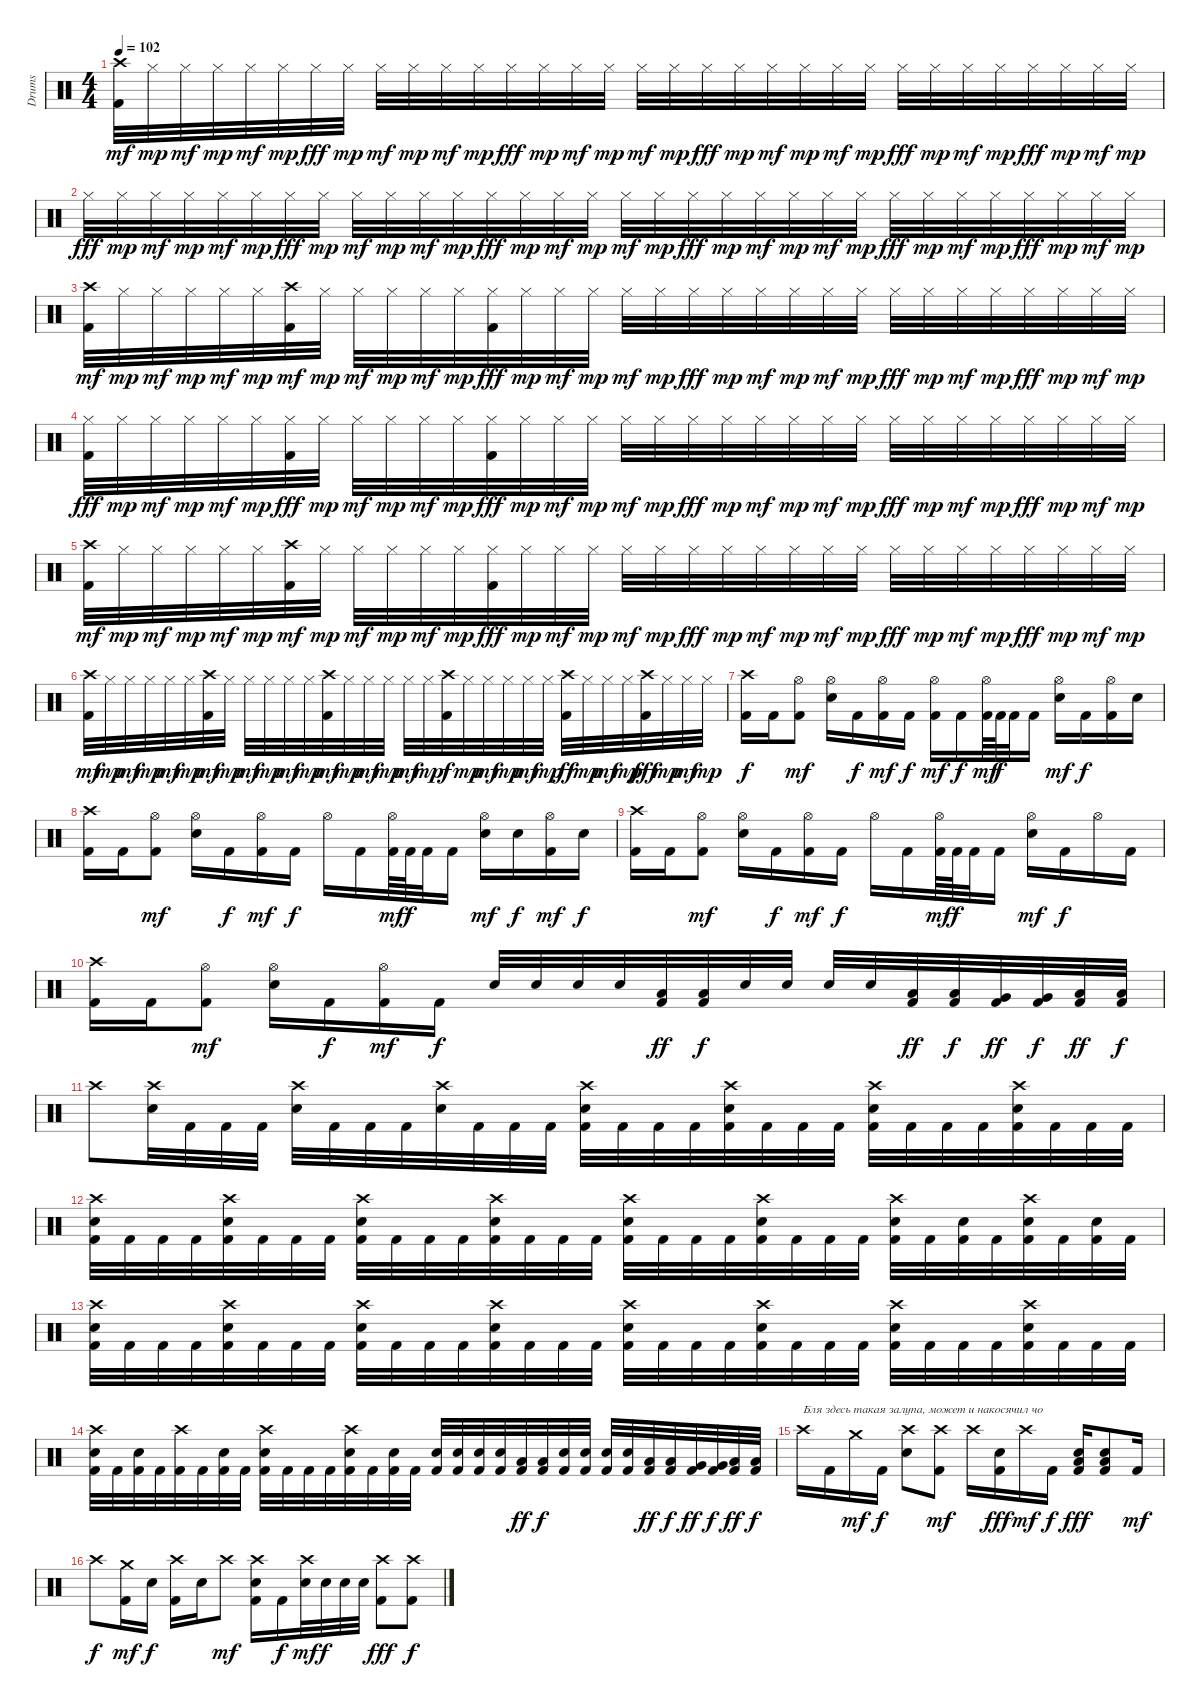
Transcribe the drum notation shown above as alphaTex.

\track ("Drums" "Drums") {instrument percussion}
\staff {score}
\articulation defaults
\ts (4 4)
\tempo 102
\clef neutral
\ks c
("Crash high (hit)" "Kick (hit) 2").32{dy mf} "Hi-Hat (closed)".32{dy mp} "Hi-Hat (closed)".32{dy mf} "Hi-Hat (closed)".32{dy mp} "Hi-Hat (closed)".32{dy mf} "Hi-Hat (closed)".32{dy mp} "Hi-Hat (closed)".32{dy fff} "Hi-Hat (closed)".32{dy mp} "Hi-Hat (closed)".32{dy mf} "Hi-Hat (closed)".32{dy mp} "Hi-Hat (closed)".32{dy mf} "Hi-Hat (closed)".32{dy mp} "Hi-Hat (closed)".32{dy fff} "Hi-Hat (closed)".32{dy mp} "Hi-Hat (closed)".32{dy mf} "Hi-Hat (closed)".32{dy mp} "Hi-Hat (closed)".32{dy mf} "Hi-Hat (closed)".32{dy mp} "Hi-Hat (closed)".32{dy fff} "Hi-Hat (closed)".32{dy mp} "Hi-Hat (closed)".32{dy mf} "Hi-Hat (closed)".32{dy mp} "Hi-Hat (closed)".32{dy mf} "Hi-Hat (closed)".32{dy mp} "Hi-Hat (closed)".32{dy fff} "Hi-Hat (closed)".32{dy mp} "Hi-Hat (closed)".32{dy mf} "Hi-Hat (closed)".32{dy mp} "Hi-Hat (closed)".32{dy fff} "Hi-Hat (closed)".32{dy mp} "Hi-Hat (closed)".32{dy mf} "Hi-Hat (closed)".32{dy mp} |
"Hi-Hat (closed)".32{dy fff} "Hi-Hat (closed)".32{dy mp} "Hi-Hat (closed)".32{dy mf} "Hi-Hat (closed)".32{dy mp} "Hi-Hat (closed)".32{dy mf} "Hi-Hat (closed)".32{dy mp} "Hi-Hat (closed)".32{dy fff} "Hi-Hat (closed)".32{dy mp} "Hi-Hat (closed)".32{dy mf} "Hi-Hat (closed)".32{dy mp} "Hi-Hat (closed)".32{dy mf} "Hi-Hat (closed)".32{dy mp} "Hi-Hat (closed)".32{dy fff} "Hi-Hat (closed)".32{dy mp} "Hi-Hat (closed)".32{dy mf} "Hi-Hat (closed)".32{dy mp} "Hi-Hat (closed)".32{dy mf} "Hi-Hat (closed)".32{dy mp} "Hi-Hat (closed)".32{dy fff} "Hi-Hat (closed)".32{dy mp} "Hi-Hat (closed)".32{dy mf} "Hi-Hat (closed)".32{dy mp} "Hi-Hat (closed)".32{dy mf} "Hi-Hat (closed)".32{dy mp} "Hi-Hat (closed)".32{dy fff} "Hi-Hat (closed)".32{dy mp} "Hi-Hat (closed)".32{dy mf} "Hi-Hat (closed)".32{dy mp} "Hi-Hat (closed)".32{dy fff} "Hi-Hat (closed)".32{dy mp} "Hi-Hat (closed)".32{dy mf} "Hi-Hat (closed)".32{dy mp} |
("Crash high (hit)" "Kick (hit) 2").32{dy mf} "Hi-Hat (closed)".32{dy mp} "Hi-Hat (closed)".32{dy mf} "Hi-Hat (closed)".32{dy mp} "Hi-Hat (closed)".32{dy mf} "Hi-Hat (closed)".32{dy mp} ("Crash high (hit)" "Kick (hit) 2").32{dy mf} "Hi-Hat (closed)".32{dy mp} "Hi-Hat (closed)".32{dy mf} "Hi-Hat (closed)".32{dy mp} "Hi-Hat (closed)".32{dy mf} "Hi-Hat (closed)".32{dy mp} ("Hi-Hat (closed)" "Kick (hit) 2").32{dy fff} "Hi-Hat (closed)".32{dy mp} "Hi-Hat (closed)".32{dy mf} "Hi-Hat (closed)".32{dy mp} "Hi-Hat (closed)".32{dy mf} "Hi-Hat (closed)".32{dy mp} "Hi-Hat (closed)".32{dy fff} "Hi-Hat (closed)".32{dy mp} "Hi-Hat (closed)".32{dy mf} "Hi-Hat (closed)".32{dy mp} "Hi-Hat (closed)".32{dy mf} "Hi-Hat (closed)".32{dy mp} "Hi-Hat (closed)".32{dy fff} "Hi-Hat (closed)".32{dy mp} "Hi-Hat (closed)".32{dy mf} "Hi-Hat (closed)".32{dy mp} "Hi-Hat (closed)".32{dy fff} "Hi-Hat (closed)".32{dy mp} "Hi-Hat (closed)".32{dy mf} "Hi-Hat (closed)".32{dy mp} |
("Hi-Hat (closed)" "Kick (hit) 2").32{dy fff} "Hi-Hat (closed)".32{dy mp} "Hi-Hat (closed)".32{dy mf} "Hi-Hat (closed)".32{dy mp} "Hi-Hat (closed)".32{dy mf} "Hi-Hat (closed)".32{dy mp} ("Hi-Hat (closed)" "Kick (hit) 2").32{dy fff} "Hi-Hat (closed)".32{dy mp} "Hi-Hat (closed)".32{dy mf} "Hi-Hat (closed)".32{dy mp} "Hi-Hat (closed)".32{dy mf} "Hi-Hat (closed)".32{dy mp} ("Hi-Hat (closed)" "Kick (hit) 2").32{dy fff} "Hi-Hat (closed)".32{dy mp} "Hi-Hat (closed)".32{dy mf} "Hi-Hat (closed)".32{dy mp} "Hi-Hat (closed)".32{dy mf} "Hi-Hat (closed)".32{dy mp} "Hi-Hat (closed)".32{dy fff} "Hi-Hat (closed)".32{dy mp} "Hi-Hat (closed)".32{dy mf} "Hi-Hat (closed)".32{dy mp} "Hi-Hat (closed)".32{dy mf} "Hi-Hat (closed)".32{dy mp} "Hi-Hat (closed)".32{dy fff} "Hi-Hat (closed)".32{dy mp} "Hi-Hat (closed)".32{dy mf} "Hi-Hat (closed)".32{dy mp} "Hi-Hat (closed)".32{dy fff} "Hi-Hat (closed)".32{dy mp} "Hi-Hat (closed)".32{dy mf} "Hi-Hat (closed)".32{dy mp} |
("Crash high (hit)" "Kick (hit) 2").32{dy mf} "Hi-Hat (closed)".32{dy mp} "Hi-Hat (closed)".32{dy mf} "Hi-Hat (closed)".32{dy mp} "Hi-Hat (closed)".32{dy mf} "Hi-Hat (closed)".32{dy mp} ("Crash high (hit)" "Kick (hit) 2").32{dy mf} "Hi-Hat (closed)".32{dy mp} "Hi-Hat (closed)".32{dy mf} "Hi-Hat (closed)".32{dy mp} "Hi-Hat (closed)".32{dy mf} "Hi-Hat (closed)".32{dy mp} ("Hi-Hat (closed)" "Kick (hit) 2").32{dy fff} "Hi-Hat (closed)".32{dy mp} "Hi-Hat (closed)".32{dy mf} "Hi-Hat (closed)".32{dy mp} "Hi-Hat (closed)".32{dy mf} "Hi-Hat (closed)".32{dy mp} "Hi-Hat (closed)".32{dy fff} "Hi-Hat (closed)".32{dy mp} "Hi-Hat (closed)".32{dy mf} "Hi-Hat (closed)".32{dy mp} "Hi-Hat (closed)".32{dy mf} "Hi-Hat (closed)".32{dy mp} "Hi-Hat (closed)".32{dy fff} "Hi-Hat (closed)".32{dy mp} "Hi-Hat (closed)".32{dy mf} "Hi-Hat (closed)".32{dy mp} "Hi-Hat (closed)".32{dy fff} "Hi-Hat (closed)".32{dy mp} "Hi-Hat (closed)".32{dy mf} "Hi-Hat (closed)".32{dy mp} |
("Crash high (hit)" "Kick (hit) 2").32{dy mf} "Hi-Hat (closed)".32{dy mp} "Hi-Hat (closed)".32{dy mf} "Hi-Hat (closed)".32{dy mp} "Hi-Hat (closed)".32{dy mf} "Hi-Hat (closed)".32{dy mp} ("Crash high (hit)" "Kick (hit) 2").32{dy mf} "Hi-Hat (closed)".32{dy mp} "Hi-Hat (closed)".32{dy mf} "Hi-Hat (closed)".32{dy mp} "Hi-Hat (closed)".32{dy mf} "Hi-Hat (closed)".32{dy mp} ("Crash high (hit)" "Kick (hit) 2").32{dy mf} "Hi-Hat (closed)".32{dy mp} "Hi-Hat (closed)".32{dy mf} "Hi-Hat (closed)".32{dy mp} "Hi-Hat (closed)".32{dy mf} "Hi-Hat (closed)".32{dy mp} ("Crash high (hit)" "Kick (hit) 2").32{dy f} "Hi-Hat (closed)".32{dy mp} "Hi-Hat (closed)".32{dy mf} "Hi-Hat (closed)".32{dy mp} "Hi-Hat (closed)".32{dy mf} "Hi-Hat (closed)".32{dy mp} ("Crash high (hit)" "Kick (hit) 2").32{dy ff} "Hi-Hat (closed)".32{dy mp} "Hi-Hat (closed)".32{dy mf} "Hi-Hat (closed)".32{dy mp} ("Crash high (hit)" "Kick (hit) 2").32{dy fff} "Hi-Hat (closed)".32{dy mp} "Hi-Hat (closed)".32{dy mf} "Hi-Hat (closed)".32{dy mp} |
("Crash high (hit)" "Kick (hit) 2").16{dy f} "Kick (hit) 2".16 ("Hi-Hat (open)" "Kick (hit) 2").8{dy mf} ("Hi-Hat (open)" "Electric Snare (hit)").16 "Kick (hit) 2".16{dy f} ("Hi-Hat (open)" "Kick (hit) 2").16{dy mf} "Kick (hit) 2".16{dy f} ("Hi-Hat (open)" "Kick (hit) 2").16{dy mf} "Kick (hit) 2".16{dy f} ("Hi-Hat (open)" "Kick (hit) 2").64{dy mf} "Kick (hit) 2".64{dy f} "Kick (hit) 2".32 "Kick (hit) 2".16 ("Hi-Hat (open)" "Electric Snare (hit)").16{dy mf} "Kick (hit) 2".16{dy f} ("Hi-Hat (open)" "Kick (hit) 2").16 "Electric Snare (hit)".16 |
("Crash high (hit)" "Kick (hit) 2").16 "Kick (hit) 2".16 ("Hi-Hat (open)" "Kick (hit) 2").8{dy mf} ("Hi-Hat (open)" "Electric Snare (hit)").16 "Kick (hit) 2".16{dy f} ("Hi-Hat (open)" "Kick (hit) 2").16{dy mf} "Kick (hit) 2".16{dy f} "Hi-Hat (open)".16 "Kick (hit) 2".16 ("Hi-Hat (open)" "Kick (hit) 2").64{dy mf} "Kick (hit) 2".64{dy f} "Kick (hit) 2".32 "Kick (hit) 2".16 ("Hi-Hat (open)" "Electric Snare (hit)").16{dy mf} "Electric Snare (hit)".16{dy f} ("Hi-Hat (open)" "Kick (hit) 2").16{dy mf} "Electric Snare (hit)".16{dy f} |
("Crash high (hit)" "Kick (hit) 2").16 "Kick (hit) 2".16 ("Hi-Hat (open)" "Kick (hit) 2").8{dy mf} ("Hi-Hat (open)" "Electric Snare (hit)").16 "Kick (hit) 2".16{dy f} ("Hi-Hat (open)" "Kick (hit) 2").16{dy mf} "Kick (hit) 2".16{dy f} "Hi-Hat (open)".16 "Kick (hit) 2".16 ("Hi-Hat (open)" "Kick (hit) 2").64{dy mf} "Kick (hit) 2".64{dy f} "Kick (hit) 2".32 "Kick (hit) 2".16 ("Hi-Hat (open)" "Electric Snare (hit)").16{dy mf} "Kick (hit) 2".16{dy f} "Hi-Hat (open)".16 "Kick (hit) 2".16 |
("Crash high (hit)" "Kick (hit) 2").16 "Kick (hit) 2".16 ("Hi-Hat (open)" "Kick (hit) 2").8{dy mf} ("Hi-Hat (open)" "Electric Snare (hit)").16 "Kick (hit) 2".16{dy f} ("Hi-Hat (open)" "Kick (hit) 2").16{dy mf} "Kick (hit) 2".16{dy f} "Electric Snare (hit)".32 "Electric Snare (hit)".32 "Electric Snare (hit)".32 "Electric Snare (hit)".32 ("Low Tom (hit)" "Kick (hit) 2").32{dy ff} ("Low Tom (hit)" "Kick (hit) 2").32{dy f} "Electric Snare (hit)".32 "Electric Snare (hit)".32 "Electric Snare (hit)".32 "Electric Snare (hit)".32 ("Low Tom (hit)" "Kick (hit) 2").32{dy ff} ("Low Tom (hit)" "Kick (hit) 2").32{dy f} ("Very Low Tom (hit)" "Kick (hit) 2").32{dy ff} ("Very Low Tom (hit)" "Kick (hit) 2").32{dy f} ("Low Floor Tom (hit)" "Kick (hit) 2").32{dy ff} ("Low Floor Tom (hit)" "Kick (hit) 2").32{dy f} |
"Crash high (hit)".8 ("Crash high (hit)" "Electric Snare (hit)").32 "Kick (hit) 2".32 "Kick (hit) 2".32 "Kick (hit) 2".32 ("Crash high (hit)" "Electric Snare (hit)").32 "Kick (hit) 2".32 "Kick (hit) 2".32 "Kick (hit) 2".32 ("Crash high (hit)" "Electric Snare (hit)").32 "Kick (hit) 2".32 "Kick (hit) 2".32 "Kick (hit) 2".32 ("Crash high (hit)" "Electric Snare (hit)" "Kick (hit) 2").32 "Kick (hit) 2".32 "Kick (hit) 2".32 "Kick (hit) 2".32 ("Crash high (hit)" "Electric Snare (hit)" "Kick (hit) 2").32 "Kick (hit) 2".32 "Kick (hit) 2".32 "Kick (hit) 2".32 ("Crash high (hit)" "Electric Snare (hit)" "Kick (hit) 2").32 "Kick (hit) 2".32 "Kick (hit) 2".32 "Kick (hit) 2".32 ("Crash high (hit)" "Electric Snare (hit)" "Kick (hit) 2").32 "Kick (hit) 2".32 "Kick (hit) 2".32 "Kick (hit) 2".32 |
("Crash high (hit)" "Electric Snare (hit)" "Kick (hit) 2").32 "Kick (hit) 2".32 "Kick (hit) 2".32 "Kick (hit) 2".32 ("Crash high (hit)" "Electric Snare (hit)" "Kick (hit) 2").32 "Kick (hit) 2".32 "Kick (hit) 2".32 "Kick (hit) 2".32 ("Crash high (hit)" "Electric Snare (hit)" "Kick (hit) 2").32 "Kick (hit) 2".32 "Kick (hit) 2".32 "Kick (hit) 2".32 ("Crash high (hit)" "Electric Snare (hit)" "Kick (hit) 2").32 "Kick (hit) 2".32 "Kick (hit) 2".32 "Kick (hit) 2".32 ("Crash high (hit)" "Electric Snare (hit)" "Kick (hit) 2").32 "Kick (hit) 2".32 "Kick (hit) 2".32 "Kick (hit) 2".32 ("Crash high (hit)" "Electric Snare (hit)" "Kick (hit) 2").32 "Kick (hit) 2".32 "Kick (hit) 2".32 "Kick (hit) 2".32 ("Crash high (hit)" "Electric Snare (hit)" "Kick (hit) 2").32 "Kick (hit) 2".32 ("Electric Snare (hit)" "Kick (hit) 2").32 "Kick (hit) 2".32 ("Crash high (hit)" "Electric Snare (hit)" "Kick (hit) 2").32 "Kick (hit) 2".32 ("Electric Snare (hit)" "Kick (hit) 2").32 "Kick (hit) 2".32 |
("Crash high (hit)" "Electric Snare (hit)" "Kick (hit) 2").32 "Kick (hit) 2".32 "Kick (hit) 2".32 "Kick (hit) 2".32 ("Crash high (hit)" "Electric Snare (hit)" "Kick (hit) 2").32 "Kick (hit) 2".32 "Kick (hit) 2".32 "Kick (hit) 2".32 ("Crash high (hit)" "Electric Snare (hit)" "Kick (hit) 2").32 "Kick (hit) 2".32 "Kick (hit) 2".32 "Kick (hit) 2".32 ("Crash high (hit)" "Electric Snare (hit)" "Kick (hit) 2").32 "Kick (hit) 2".32 "Kick (hit) 2".32 "Kick (hit) 2".32 ("Crash high (hit)" "Electric Snare (hit)" "Kick (hit) 2").32 "Kick (hit) 2".32 "Kick (hit) 2".32 "Kick (hit) 2".32 ("Crash high (hit)" "Electric Snare (hit)" "Kick (hit) 2").32 "Kick (hit) 2".32 "Kick (hit) 2".32 "Kick (hit) 2".32 ("Crash high (hit)" "Electric Snare (hit)" "Kick (hit) 2").32 "Kick (hit) 2".32 "Kick (hit) 2".32 "Kick (hit) 2".32 ("Crash high (hit)" "Electric Snare (hit)" "Kick (hit) 2").32 "Kick (hit) 2".32 "Kick (hit) 2".32 "Kick (hit) 2".32 |
("Crash high (hit)" "Electric Snare (hit)" "Kick (hit) 2").32 "Kick (hit) 2".32 ("Electric Snare (hit)" "Kick (hit) 2").32 "Kick (hit) 2".32 ("Crash high (hit)" "Kick (hit) 2").32 "Kick (hit) 2".32 ("Electric Snare (hit)" "Kick (hit) 2").32 "Kick (hit) 2".32 ("Crash high (hit)" "Electric Snare (hit)" "Kick (hit) 2").32 "Kick (hit) 2".32 "Kick (hit) 2".32 "Kick (hit) 2".32 ("Crash high (hit)" "Electric Snare (hit)" "Kick (hit) 2").32 "Kick (hit) 2".32 ("Electric Snare (hit)" "Kick (hit) 2").32 "Kick (hit) 2".32 ("Electric Snare (hit)" "Kick (hit) 2").32 ("Electric Snare (hit)" "Kick (hit) 2").32 ("Electric Snare (hit)" "Kick (hit) 2").32 ("Electric Snare (hit)" "Kick (hit) 2").32 ("Low Tom (hit)" "Kick (hit) 2").32{dy ff} ("Low Tom (hit)" "Kick (hit) 2").32{dy f} ("Electric Snare (hit)" "Kick (hit) 2").32 ("Electric Snare (hit)" "Kick (hit) 2").32 ("Electric Snare (hit)" "Kick (hit) 2").32 ("Electric Snare (hit)" "Kick (hit) 2").32 ("Low Tom (hit)" "Kick (hit) 2").32{dy ff} ("Low Tom (hit)" "Kick (hit) 2").32{dy f} ("Very Low Tom (hit)" "Kick (hit) 2").32{dy ff} ("Very Low Tom (hit)" "Kick (hit) 2").32{dy f} ("Low Floor Tom (hit)" "Kick (hit) 2").32{dy ff} ("Low Floor Tom (hit)" "Kick (hit) 2").32{dy f} |
"Crash high (hit)".16{txt "Бля здесь такая залупа, может и накосячил чо"} "Kick (hit) 2".16 "Crash medium (hit)".16{dy mf} "Kick (hit) 2".16{dy f} ("Crash high (hit)" "Electric Snare (hit)").8 ("Crash high (hit)" "Kick (hit) 2").8{dy mf} "Crash high (hit)".16 ("Electric Snare (hit)" "Kick (hit) 2").16{dy fff} "Crash high (hit)".16{dy mf} "Kick (hit) 2".16{dy f} ("Low Floor Tom (hit)" "Electric Snare (hit)" "Kick (hit) 2").16{dy fff} ("Low Floor Tom (hit)" "Electric Snare (hit)" "Kick (hit) 2").8 "Kick (hit) 2".16{dy mf} |
"Crash high (hit)".8{dy f} ("Crash medium (hit)" "Kick (hit) 2").16{dy mf} "Electric Snare (hit)".16{dy f} ("Crash high (hit)" "Kick (hit) 2").16 "Electric Snare (hit)".16 "Crash high (hit)".8{dy mf} ("Crash high (hit)" "Electric Snare (hit)" "Kick (hit) 2").16 "Kick (hit) 2".16{dy f} ("Crash high (hit)" "Electric Snare (hit)").32{dy mf} "Electric Snare (hit)".32{dy f} "Electric Snare (hit)".32 "Electric Snare (hit)".32 ("Crash high (hit)" "Kick (hit) 2").8{dy fff} ("Crash high (hit)" "Kick (hit) 2").8{dy f}
